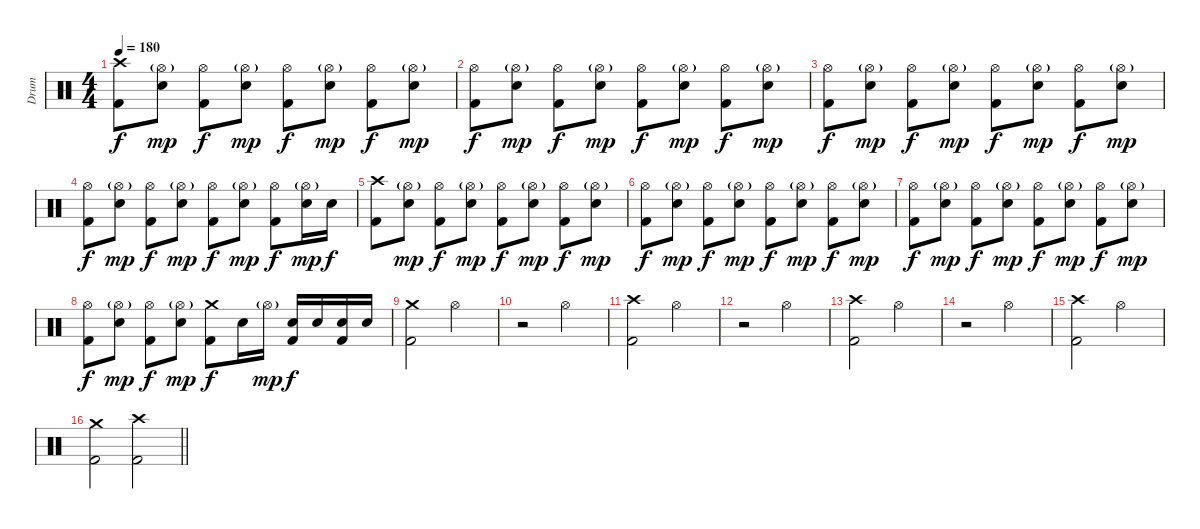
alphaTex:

\track ("Drum" "Drum") {instrument percussion}
\staff {score}
\articulation defaults
\ts (4 4)
\tempo 180
\clef neutral
\ks c
("Crash high (hit)" "Kick (hit) 2").8{dy f} ("Hi-Hat (open)"{g} "Snare (hit) 2").8{dy mp} ("Hi-Hat (open)" "Kick (hit) 2").8{dy f} ("Hi-Hat (open)"{g} "Snare (hit) 2").8{dy mp} ("Hi-Hat (open)" "Kick (hit) 2").8{dy f} ("Hi-Hat (open)"{g} "Snare (hit) 2").8{dy mp} ("Hi-Hat (open)" "Kick (hit) 2").8{dy f} ("Hi-Hat (open)"{g} "Snare (hit) 2").8{dy mp} |
("Hi-Hat (open)" "Kick (hit) 2").8{dy f} ("Hi-Hat (open)"{g} "Snare (hit) 2").8{dy mp} ("Hi-Hat (open)" "Kick (hit) 2").8{dy f} ("Hi-Hat (open)"{g} "Snare (hit) 2").8{dy mp} ("Hi-Hat (open)" "Kick (hit) 2").8{dy f} ("Hi-Hat (open)"{g} "Snare (hit) 2").8{dy mp} ("Hi-Hat (open)" "Kick (hit) 2").8{dy f} ("Hi-Hat (open)"{g} "Snare (hit) 2").8{dy mp} |
("Hi-Hat (open)" "Kick (hit) 2").8{dy f} ("Hi-Hat (open)"{g} "Snare (hit) 2").8{dy mp} ("Hi-Hat (open)" "Kick (hit) 2").8{dy f} ("Hi-Hat (open)"{g} "Snare (hit) 2").8{dy mp} ("Hi-Hat (open)" "Kick (hit) 2").8{dy f} ("Hi-Hat (open)"{g} "Snare (hit) 2").8{dy mp} ("Hi-Hat (open)" "Kick (hit) 2").8{dy f} ("Hi-Hat (open)"{g} "Snare (hit) 2").8{dy mp} |
("Hi-Hat (open)" "Kick (hit) 2").8{dy f} ("Hi-Hat (open)"{g} "Snare (hit) 2").8{dy mp} ("Hi-Hat (open)" "Kick (hit) 2").8{dy f} ("Hi-Hat (open)"{g} "Snare (hit) 2").8{dy mp} ("Hi-Hat (open)" "Kick (hit) 2").8{dy f} ("Hi-Hat (open)"{g} "Snare (hit) 2").8{dy mp} ("Hi-Hat (open)" "Kick (hit) 2").8{dy f} ("Hi-Hat (open)"{g} "Snare (hit) 2").16{dy mp} "Snare (hit) 2".16{dy f} |
("Crash high (hit)" "Kick (hit) 2").8 ("Hi-Hat (open)"{g} "Snare (hit) 2").8{dy mp} ("Hi-Hat (open)" "Kick (hit) 2").8{dy f} ("Hi-Hat (open)"{g} "Snare (hit) 2").8{dy mp} ("Hi-Hat (open)" "Kick (hit) 2").8{dy f} ("Hi-Hat (open)"{g} "Snare (hit) 2").8{dy mp} ("Hi-Hat (open)" "Kick (hit) 2").8{dy f} ("Hi-Hat (open)"{g} "Snare (hit) 2").8{dy mp} |
("Hi-Hat (open)" "Kick (hit) 2").8{dy f} ("Hi-Hat (open)"{g} "Snare (hit) 2").8{dy mp} ("Hi-Hat (open)" "Kick (hit) 2").8{dy f} ("Hi-Hat (open)"{g} "Snare (hit) 2").8{dy mp} ("Hi-Hat (open)" "Kick (hit) 2").8{dy f} ("Hi-Hat (open)"{g} "Snare (hit) 2").8{dy mp} ("Hi-Hat (open)" "Kick (hit) 2").8{dy f} ("Hi-Hat (open)"{g} "Snare (hit) 2").8{dy mp} |
("Hi-Hat (open)" "Kick (hit) 2").8{dy f} ("Hi-Hat (open)"{g} "Snare (hit) 2").8{dy mp} ("Hi-Hat (open)" "Kick (hit) 2").8{dy f} ("Hi-Hat (open)"{g} "Snare (hit) 2").8{dy mp} ("Hi-Hat (open)" "Kick (hit) 2").8{dy f} ("Hi-Hat (open)"{g} "Snare (hit) 2").8{dy mp} ("Hi-Hat (open)" "Kick (hit) 2").8{dy f} ("Hi-Hat (open)"{g} "Snare (hit) 2").8{dy mp} |
("Hi-Hat (open)" "Kick (hit) 2").8{dy f} ("Hi-Hat (open)"{g} "Snare (hit) 2").8{dy mp} ("Hi-Hat (open)" "Kick (hit) 2").8{dy f} ("Hi-Hat (open)"{g} "Snare (hit) 2").8{dy mp} ("Crash medium (hit)" "Kick (hit) 2").8{dy f} "Snare (hit) 2".16 "Hi-Hat (open)"{g}.16{dy mp} ("Snare (hit) 2" "Kick (hit) 2").16{dy f} "Snare (hit) 2".16 ("Snare (hit) 2" "Kick (hit) 2").16 "Snare (hit) 2".16 |
("Crash medium (hit)" "Kick (hit) 2").2 "Hi-Hat (open)".2 |
r.2 "Hi-Hat (open)".2 |
("Crash high (hit)" "Kick (hit) 2").2 "Hi-Hat (open)".2 |
r.2 "Hi-Hat (open)".2 |
("Crash high (hit)" "Kick (hit) 2").2 "Hi-Hat (open)".2 |
r.2 "Hi-Hat (open)".2 |
("Crash high (hit)" "Kick (hit) 2").2 "Hi-Hat (open)".2 |
\barLineRight lightlight
("Crash medium (hit)" "Kick (hit) 2").2 ("Crash high (hit)" "Kick (hit) 2").2
